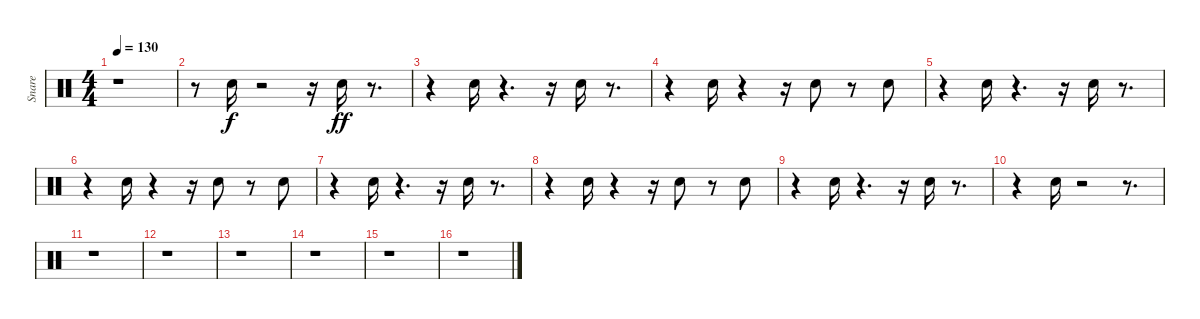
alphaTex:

\track ("Snare" "Snare") {instrument percussion}
\staff {score}
\articulation defaults
\ts (4 4)
\tempo 130
\clef neutral
\ks c
r.1{dy ff} |
r.8 "Snare (hit) 2".16{dy f} r.2 r.16 "Snare (hit) 2".16{dy ff} r.8{d} |
r.4 "Snare (hit) 2".16 r.4{d} r.16 "Snare (hit) 2".16 r.8{d} |
r.4 "Snare (hit) 2".16 r.4 r.16 "Snare (hit) 2".8 r.8 "Snare (hit) 2".8 |
r.4 "Snare (hit) 2".16 r.4{d} r.16 "Snare (hit) 2".16 r.8{d} |
r.4 "Snare (hit) 2".16 r.4 r.16 "Snare (hit) 2".8 r.8 "Snare (hit) 2".8 |
r.4 "Snare (hit) 2".16 r.4{d} r.16 "Snare (hit) 2".16 r.8{d} |
r.4 "Snare (hit) 2".16 r.4 r.16 "Snare (hit) 2".8 r.8 "Snare (hit) 2".8 |
r.4 "Snare (hit) 2".16 r.4{d} r.16 "Snare (hit) 2".16 r.8{d} |
r.4 "Snare (hit) 2".16 r.2 r.8{d} |
r.1 |
r.1 |
r.1 |
r.1 |
r.1 |
r.1
